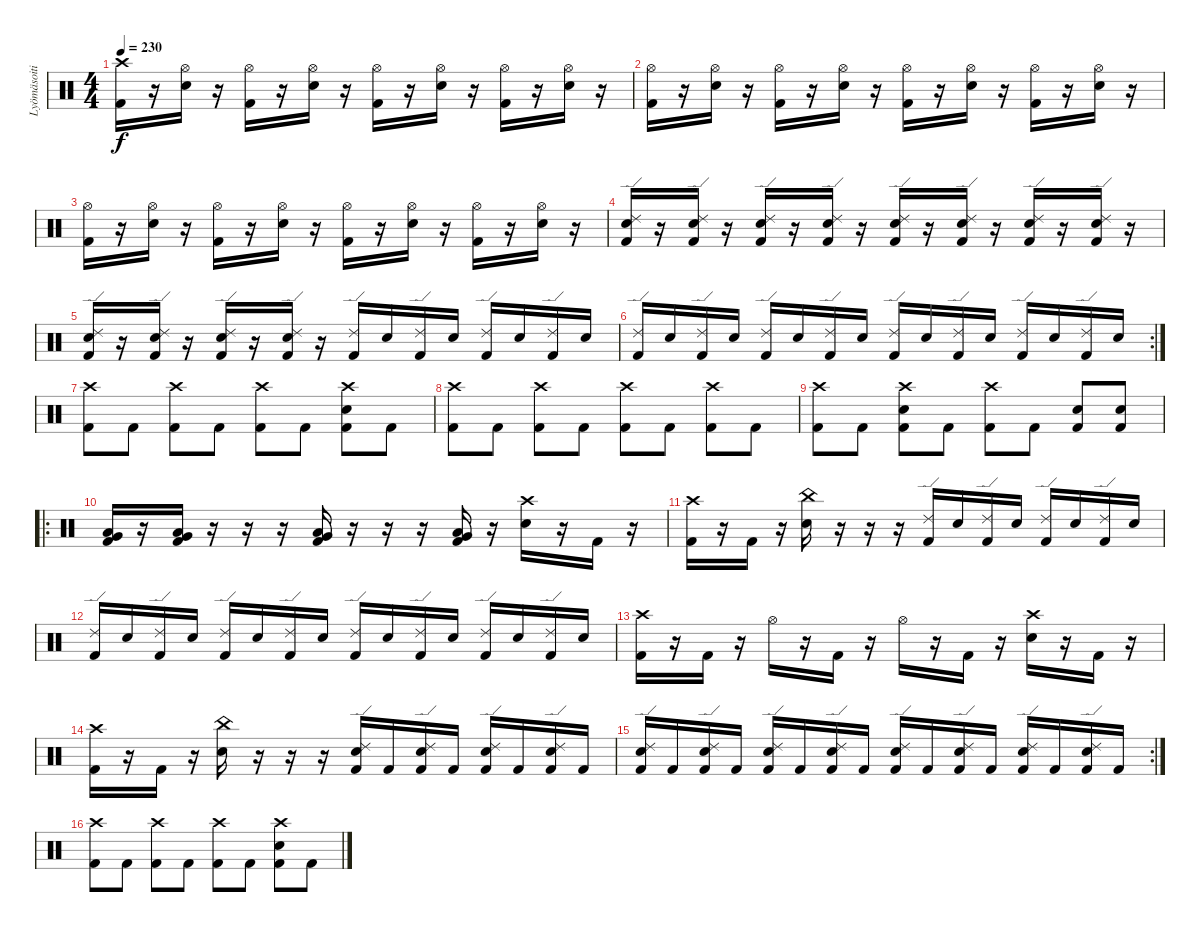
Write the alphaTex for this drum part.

\track ("Lyömäsoitin" "Lyömäsoiti") {instrument percussion}
\staff {score}
\articulation defaults
\ts (4 4)
\tempo 230
\clef neutral
\ks c
("Crash high (hit)" "Kick (hit) 2").16{dy f} r.16 ("Hi-Hat (open)" "Snare (hit) 2").16 r.16 ("Hi-Hat (open)" "Kick (hit) 2").16 r.16 ("Hi-Hat (open)" "Snare (hit) 2").16 r.16 ("Hi-Hat (open)" "Kick (hit) 2").16 r.16 ("Hi-Hat (open)" "Snare (hit) 2").16 r.16 ("Hi-Hat (open)" "Kick (hit) 2").16 r.16 ("Hi-Hat (open)" "Snare (hit) 2").16 r.16 |
("Hi-Hat (open)" "Kick (hit) 2").16 r.16 ("Hi-Hat (open)" "Snare (hit) 2").16 r.16 ("Hi-Hat (open)" "Kick (hit) 2").16 r.16 ("Hi-Hat (open)" "Snare (hit) 2").16 r.16 ("Hi-Hat (open)" "Kick (hit) 2").16 r.16 ("Hi-Hat (open)" "Snare (hit) 2").16 r.16 ("Hi-Hat (open)" "Kick (hit) 2").16 r.16 ("Hi-Hat (open)" "Snare (hit) 2").16 r.16 |
("Hi-Hat (open)" "Kick (hit) 2").16 r.16 ("Hi-Hat (open)" "Snare (hit) 2").16 r.16 ("Hi-Hat (open)" "Kick (hit) 2").16 r.16 ("Hi-Hat (open)" "Snare (hit) 2").16 r.16 ("Hi-Hat (open)" "Kick (hit) 2").16 r.16 ("Hi-Hat (open)" "Snare (hit) 2").16 r.16 ("Hi-Hat (open)" "Kick (hit) 2").16 r.16 ("Hi-Hat (open)" "Snare (hit) 2").16 r.16 |
("Ride (edge) 2" "Snare (hit) 2" "Kick (hit) 2").16 r.16 ("Ride (edge) 2" "Snare (hit) 2" "Kick (hit) 2").16 r.16 ("Ride (edge) 2" "Snare (hit) 2" "Kick (hit) 2").16 r.16 ("Ride (edge) 2" "Snare (hit) 2" "Kick (hit) 2").16 r.16 ("Ride (edge) 2" "Snare (hit) 2" "Kick (hit) 2").16 r.16 ("Ride (edge) 2" "Snare (hit) 2" "Kick (hit) 2").16 r.16 ("Ride (edge) 2" "Snare (hit) 2" "Kick (hit) 2").16 r.16 ("Ride (edge) 2" "Snare (hit) 2" "Kick (hit) 2").16 r.16 |
("Ride (edge) 2" "Snare (hit) 2" "Kick (hit) 2").16 r.16 ("Ride (edge) 2" "Snare (hit) 2" "Kick (hit) 2").16 r.16 ("Ride (edge) 2" "Snare (hit) 2" "Kick (hit) 2").16 r.16 ("Ride (edge) 2" "Snare (hit) 2" "Kick (hit) 2").16 r.16 ("Ride (edge) 2" "Kick (hit) 2").16 "Snare (hit) 2".16 ("Ride (edge) 2" "Kick (hit) 2").16 "Snare (hit) 2".16 ("Ride (edge) 2" "Kick (hit) 2").16 "Snare (hit) 2".16 ("Ride (edge) 2" "Kick (hit) 2").16 "Snare (hit) 2".16 |
\rc 2
("Ride (edge) 2" "Kick (hit) 2").16 "Snare (hit) 2".16 ("Ride (edge) 2" "Kick (hit) 2").16 "Snare (hit) 2".16 ("Ride (edge) 2" "Kick (hit) 2").16 "Snare (hit) 2".16 ("Ride (edge) 2" "Kick (hit) 2").16 "Snare (hit) 2".16 ("Ride (edge) 2" "Kick (hit) 2").16 "Snare (hit) 2".16 ("Ride (edge) 2" "Kick (hit) 2").16 "Snare (hit) 2".16 ("Ride (edge) 2" "Kick (hit) 2").16 "Snare (hit) 2".16 ("Ride (edge) 2" "Kick (hit) 2").16 "Snare (hit) 2".16 |
("Crash high (hit)" "Kick (hit) 2").8 "Kick (hit) 2".8 ("Crash high (hit)" "Kick (hit) 2").8 "Kick (hit) 2".8 ("Crash high (hit)" "Kick (hit) 2").8 "Kick (hit) 2".8 ("Crash high (hit)" "Snare (hit) 2" "Kick (hit) 2").8 "Kick (hit) 2".8 |
("Crash high (hit)" "Kick (hit) 2").8 "Kick (hit) 2".8 ("Crash high (hit)" "Kick (hit) 2").8 "Kick (hit) 2".8 ("Crash high (hit)" "Kick (hit) 2").8 "Kick (hit) 2".8 ("Crash high (hit)" "Kick (hit) 2").8 "Kick (hit) 2".8 |
("Crash high (hit)" "Kick (hit) 2").8 "Kick (hit) 2".8 ("Crash high (hit)" "Snare (hit) 2" "Kick (hit) 2").8 "Kick (hit) 2".8 ("Crash high (hit)" "Kick (hit) 2").8 "Kick (hit) 2".8 ("Snare (hit) 2" "Kick (hit) 2").8 ("Snare (hit) 2" "Kick (hit) 2").8 |
\ro
("Very Low Tom (hit)" "Low Floor Tom (hit)" "Kick (hit) 2").16 r.16 ("Very Low Tom (hit)" "Low Floor Tom (hit)" "Kick (hit) 2").16 r.16 r.16 r.16 ("Very Low Tom (hit)" "Low Floor Tom (hit)" "Kick (hit) 2").16 r.16 r.16 r.16 ("Very Low Tom (hit)" "Low Floor Tom (hit)" "Kick (hit) 2").16 r.16 ("Crash high (hit)" "Snare (hit) 2").16 r.16 "Kick (hit) 2".16 r.16 |
("Crash high (hit)" "Kick (hit) 2").16 r.16 "Kick (hit) 2".16 r.16 ("China (hit)" "Snare (hit) 2").16 r.16 r.16 r.16 ("Ride (edge) 2" "Kick (hit) 2").16 "Snare (hit) 2".16 ("Ride (edge) 2" "Kick (hit) 2").16 "Snare (hit) 2".16 ("Ride (edge) 2" "Kick (hit) 2").16 "Snare (hit) 2".16 ("Ride (edge) 2" "Kick (hit) 2").16 "Snare (hit) 2".16 |
("Ride (edge) 2" "Kick (hit) 2").16 "Snare (hit) 2".16 ("Ride (edge) 2" "Kick (hit) 2").16 "Snare (hit) 2".16 ("Ride (edge) 2" "Kick (hit) 2").16 "Snare (hit) 2".16 ("Ride (edge) 2" "Kick (hit) 2").16 "Snare (hit) 2".16 ("Ride (edge) 2" "Kick (hit) 2").16 "Snare (hit) 2".16 ("Ride (edge) 2" "Kick (hit) 2").16 "Snare (hit) 2".16 ("Ride (edge) 2" "Kick (hit) 2").16 "Snare (hit) 2".16 ("Ride (edge) 2" "Kick (hit) 2").16 "Snare (hit) 2".16 |
("Crash high (hit)" "Kick (hit) 2").16 r.16 "Kick (hit) 2".16 r.16 "Hi-Hat (open)".16 r.16 "Kick (hit) 2".16 r.16 "Hi-Hat (open)".16 r.16 "Kick (hit) 2".16 r.16 ("Crash high (hit)" "Snare (hit) 2").16 r.16 "Kick (hit) 2".16 r.16 |
("Crash high (hit)" "Kick (hit) 2").16 r.16 "Kick (hit) 2".16 r.16 ("China (hit)" "Snare (hit) 2").16 r.16 r.16 r.16 ("Ride (edge) 2" "Snare (hit) 2" "Kick (hit) 2").16 "Kick (hit) 2".16 ("Ride (edge) 2" "Snare (hit) 2" "Kick (hit) 2").16 "Kick (hit) 2".16 ("Ride (edge) 2" "Snare (hit) 2" "Kick (hit) 2").16 "Kick (hit) 2".16 ("Ride (edge) 2" "Snare (hit) 2" "Kick (hit) 2").16 "Kick (hit) 2".16 |
\rc 2
("Ride (edge) 2" "Snare (hit) 2" "Kick (hit) 2").16 "Kick (hit) 2".16 ("Ride (edge) 2" "Snare (hit) 2" "Kick (hit) 2").16 "Kick (hit) 2".16 ("Ride (edge) 2" "Snare (hit) 2" "Kick (hit) 2").16 "Kick (hit) 2".16 ("Ride (edge) 2" "Snare (hit) 2" "Kick (hit) 2").16 "Kick (hit) 2".16 ("Ride (edge) 2" "Snare (hit) 2" "Kick (hit) 2").16 "Kick (hit) 2".16 ("Ride (edge) 2" "Snare (hit) 2" "Kick (hit) 2").16 "Kick (hit) 2".16 ("Ride (edge) 2" "Snare (hit) 2" "Kick (hit) 2").16 "Kick (hit) 2".16 ("Ride (edge) 2" "Snare (hit) 2" "Kick (hit) 2").16 "Kick (hit) 2".16 |
("Crash high (hit)" "Kick (hit) 2").8 "Kick (hit) 2".8 ("Crash high (hit)" "Kick (hit) 2").8 "Kick (hit) 2".8 ("Crash high (hit)" "Kick (hit) 2").8 "Kick (hit) 2".8 ("Crash high (hit)" "Snare (hit) 2" "Kick (hit) 2").8 "Kick (hit) 2".8
